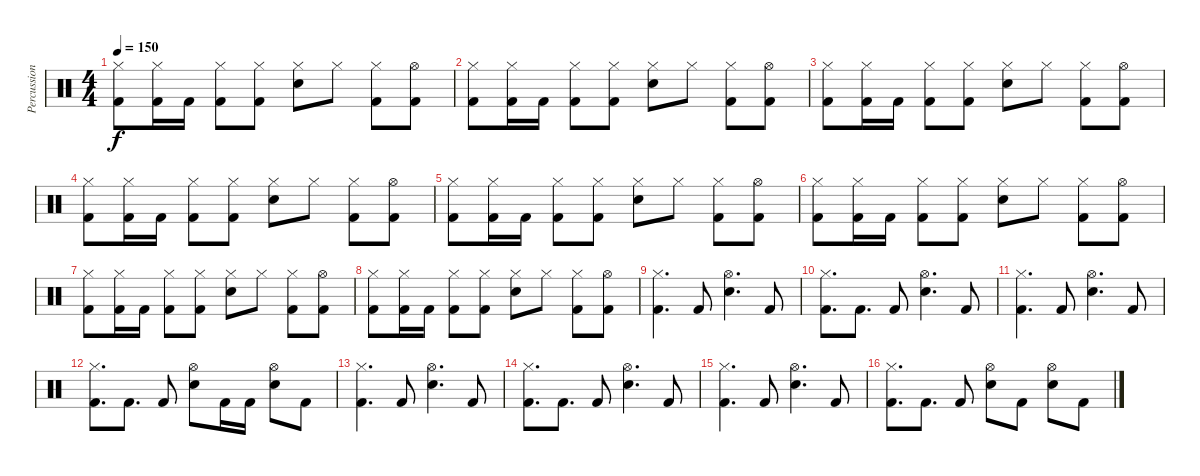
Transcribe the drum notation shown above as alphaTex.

\track ("Percussions" "Percussion") {instrument percussion}
\staff {score}
\articulation defaults
\ts (4 4)
\tempo 150
\clef neutral
\ks c
("Hi-Hat (closed)" "Kick (hit) 2").8{dy f} ("Hi-Hat (closed)" "Kick (hit) 2").16 "Kick (hit) 2".16 ("Hi-Hat (closed)" "Kick (hit) 2").8 ("Hi-Hat (closed)" "Kick (hit) 2").8 ("Hi-Hat (closed)" "Snare (hit) 2").8 "Hi-Hat (closed)".8 ("Hi-Hat (closed)" "Kick (hit) 2").8 ("Hi-Hat (open)" "Kick (hit) 2").8 |
("Hi-Hat (closed)" "Kick (hit) 2").8 ("Hi-Hat (closed)" "Kick (hit) 2").16 "Kick (hit) 2".16 ("Hi-Hat (closed)" "Kick (hit) 2").8 ("Hi-Hat (closed)" "Kick (hit) 2").8 ("Hi-Hat (closed)" "Snare (hit) 2").8 "Hi-Hat (closed)".8 ("Hi-Hat (closed)" "Kick (hit) 2").8 ("Hi-Hat (open)" "Kick (hit) 2").8 |
("Hi-Hat (closed)" "Kick (hit) 2").8 ("Hi-Hat (closed)" "Kick (hit) 2").16 "Kick (hit) 2".16 ("Hi-Hat (closed)" "Kick (hit) 2").8 ("Hi-Hat (closed)" "Kick (hit) 2").8 ("Hi-Hat (closed)" "Snare (hit) 2").8 "Hi-Hat (closed)".8 ("Hi-Hat (closed)" "Kick (hit) 2").8 ("Hi-Hat (open)" "Kick (hit) 2").8 |
("Hi-Hat (closed)" "Kick (hit) 2").8 ("Hi-Hat (closed)" "Kick (hit) 2").16 "Kick (hit) 2".16 ("Hi-Hat (closed)" "Kick (hit) 2").8 ("Hi-Hat (closed)" "Kick (hit) 2").8 ("Hi-Hat (closed)" "Snare (hit) 2").8 "Hi-Hat (closed)".8 ("Hi-Hat (closed)" "Kick (hit) 2").8 ("Hi-Hat (open)" "Kick (hit) 2").8 |
("Hi-Hat (closed)" "Kick (hit) 2").8 ("Hi-Hat (closed)" "Kick (hit) 2").16 "Kick (hit) 2".16 ("Hi-Hat (closed)" "Kick (hit) 2").8 ("Hi-Hat (closed)" "Kick (hit) 2").8 ("Hi-Hat (closed)" "Snare (hit) 2").8 "Hi-Hat (closed)".8 ("Hi-Hat (closed)" "Kick (hit) 2").8 ("Hi-Hat (open)" "Kick (hit) 2").8 |
("Hi-Hat (closed)" "Kick (hit) 2").8 ("Hi-Hat (closed)" "Kick (hit) 2").16 "Kick (hit) 2".16 ("Hi-Hat (closed)" "Kick (hit) 2").8 ("Hi-Hat (closed)" "Kick (hit) 2").8 ("Hi-Hat (closed)" "Snare (hit) 2").8 "Hi-Hat (closed)".8 ("Hi-Hat (closed)" "Kick (hit) 2").8 ("Hi-Hat (open)" "Kick (hit) 2").8 |
("Hi-Hat (closed)" "Kick (hit) 2").8 ("Hi-Hat (closed)" "Kick (hit) 2").16 "Kick (hit) 2".16 ("Hi-Hat (closed)" "Kick (hit) 2").8 ("Hi-Hat (closed)" "Kick (hit) 2").8 ("Hi-Hat (closed)" "Snare (hit) 2").8 "Hi-Hat (closed)".8 ("Hi-Hat (closed)" "Kick (hit) 2").8 ("Hi-Hat (open)" "Kick (hit) 2").8 |
("Hi-Hat (closed)" "Kick (hit) 2").8 ("Hi-Hat (closed)" "Kick (hit) 2").16 "Kick (hit) 2".16 ("Hi-Hat (closed)" "Kick (hit) 2").8 ("Hi-Hat (closed)" "Kick (hit) 2").8 ("Hi-Hat (closed)" "Snare (hit) 2").8 "Hi-Hat (closed)".8 ("Hi-Hat (closed)" "Kick (hit) 2").8 ("Hi-Hat (open)" "Kick (hit) 2").8 |
("Hi-Hat (closed)" "Kick (hit) 2").4{d} "Kick (hit) 2".8 ("Hi-Hat (open)" "Snare (hit) 2").4{d} "Kick (hit) 2".8 |
("Hi-Hat (closed)" "Kick (hit) 2").8{d} "Kick (hit) 2".8{d} "Kick (hit) 2".8 ("Hi-Hat (open)" "Snare (hit) 2").4{d} "Kick (hit) 2".8 |
("Hi-Hat (closed)" "Kick (hit) 2").4{d} "Kick (hit) 2".8 ("Hi-Hat (open)" "Snare (hit) 2").4{d} "Kick (hit) 2".8 |
("Hi-Hat (closed)" "Kick (hit) 2").8{d} "Kick (hit) 2".8{d} "Kick (hit) 2".8 ("Hi-Hat (open)" "Snare (hit) 2").8 "Kick (hit) 2".16 "Kick (hit) 2".16 ("Hi-Hat (open)" "Snare (hit) 2").8 "Kick (hit) 2".8 |
("Hi-Hat (closed)" "Kick (hit) 2").4{d} "Kick (hit) 2".8 ("Hi-Hat (open)" "Snare (hit) 2").4{d} "Kick (hit) 2".8 |
("Hi-Hat (closed)" "Kick (hit) 2").8{d} "Kick (hit) 2".8{d} "Kick (hit) 2".8 ("Hi-Hat (open)" "Snare (hit) 2").4{d} "Kick (hit) 2".8 |
("Hi-Hat (closed)" "Kick (hit) 2").4{d} "Kick (hit) 2".8 ("Hi-Hat (open)" "Snare (hit) 2").4{d} "Kick (hit) 2".8 |
("Hi-Hat (closed)" "Kick (hit) 2").8{d} "Kick (hit) 2".8{d} "Kick (hit) 2".8 ("Hi-Hat (open)" "Snare (hit) 2").8 "Kick (hit) 2".8 ("Hi-Hat (open)" "Snare (hit) 2").8 "Kick (hit) 2".8
